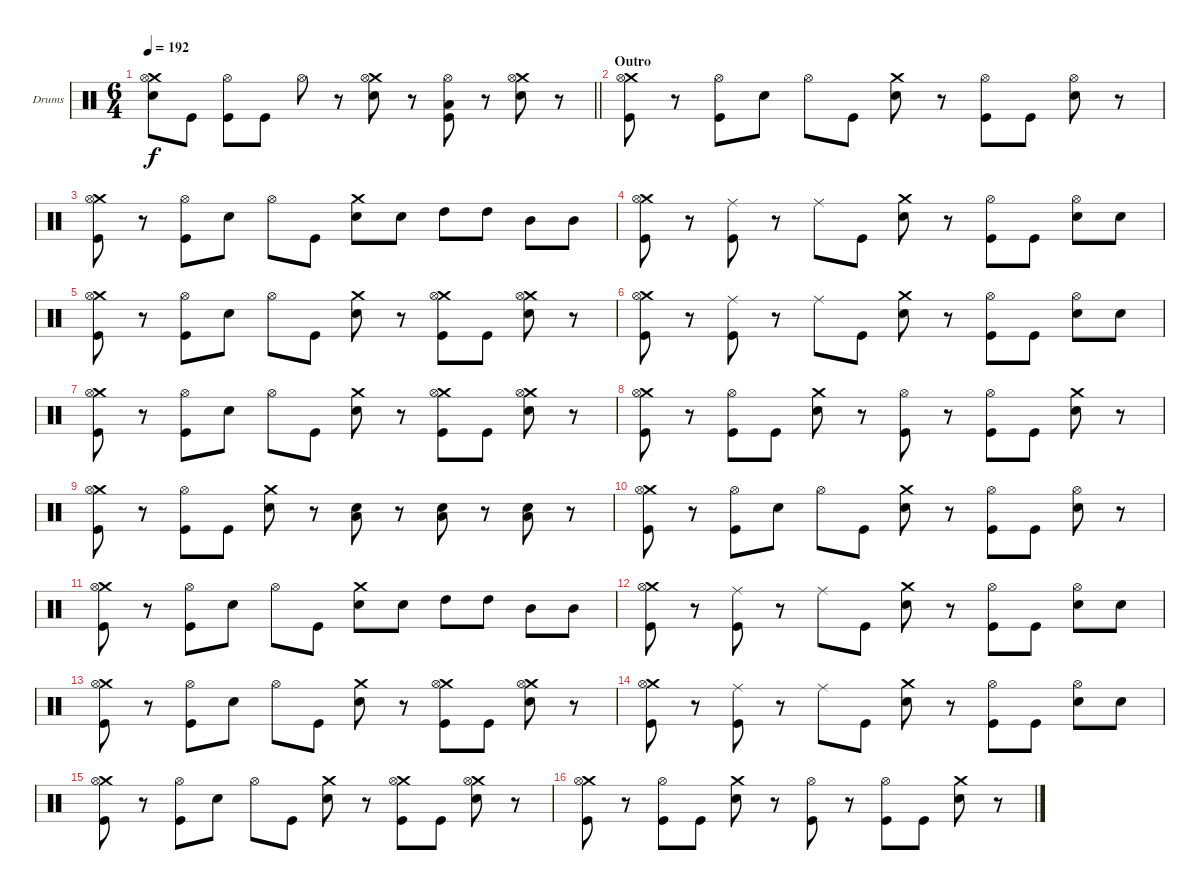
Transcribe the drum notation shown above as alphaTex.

\bracketExtendMode groupsimilarinstruments
\firstSystemTrackNameOrientation horizontal
\otherSystemsTrackNameOrientation horizontal
\track ("Drumkit" "Drums") {instrument percussion}
\staff {score}
\articulation defaults
\ts (6 4)
\tempo 192
\clef neutral
\barLineRight lightlight
\ks c
("Crash medium (hit)" "Hi-Hat (open)" "Snare (hit) 2").8{dy f} "Kick (hit)".8 ("Hi-Hat (open)" "Kick (hit)").8 "Kick (hit)".8 "Hi-Hat (open)".8 r.8 ("Crash medium (hit)" "Hi-Hat (open)" "Snare (hit) 2").8 r.8 ("Hi-Hat (open)" "Low Tom (hit)" "Kick (hit)").8 r.8 ("Crash medium (hit)" "Hi-Hat (open)" "Snare (hit) 2").8 r.8 |
\section ("" "Outro")
("Crash medium (hit)" "Hi-Hat (open)" "Kick (hit)").8 r.8 ("Hi-Hat (open)" "Kick (hit)").8 "Snare (hit) 2".8 "Hi-Hat (open)".8 "Kick (hit)".8 ("Crash medium (hit)" "Snare (hit) 2").8 r.8 ("Hi-Hat (open)" "Kick (hit)").8 "Kick (hit)".8 ("Hi-Hat (open)" "Snare (hit) 2").8 r.8 |
("Crash medium (hit)" "Hi-Hat (open)" "Kick (hit)").8 r.8 ("Hi-Hat (open)" "Kick (hit)").8 "Snare (hit) 2".8 "Hi-Hat (open)".8 "Kick (hit)".8 ("Crash medium (hit)" "Snare (hit) 2").8 "Snare (hit) 2".8 "High Tom (hit)".8 "High Tom (hit)".8 "Mid Tom (hit)".8 "Mid Tom (hit)".8 |
("Crash medium (hit)" "Hi-Hat (open)" "Kick (hit)").8 r.8 ("Ride (middle)" "Kick (hit)").8 r.8 "Ride (middle)".8 "Kick (hit)".8 ("Crash medium (hit)" "Snare (hit) 2").8 r.8 ("Hi-Hat (open)" "Kick (hit)").8 "Kick (hit)".8 ("Hi-Hat (open)" "Snare (hit) 2").8 "Snare (hit) 2".8 |
("Crash medium (hit)" "Hi-Hat (open)" "Kick (hit)").8 r.8 ("Hi-Hat (open)" "Kick (hit)").8 "Snare (hit) 2".8 "Hi-Hat (open)".8 "Kick (hit)".8 ("Crash medium (hit)" "Snare (hit) 2").8 r.8 ("Crash medium (hit)" "Hi-Hat (open)" "Kick (hit)").8 "Kick (hit)".8 ("Crash medium (hit)" "Hi-Hat (open)" "Snare (hit) 2").8 r.8 |
("Crash medium (hit)" "Hi-Hat (open)" "Kick (hit)").8 r.8 ("Ride (middle)" "Kick (hit)").8 r.8 "Ride (middle)".8 "Kick (hit)".8 ("Crash medium (hit)" "Snare (hit) 2").8 r.8 ("Hi-Hat (open)" "Kick (hit)").8 "Kick (hit)".8 ("Hi-Hat (open)" "Snare (hit) 2").8 "Snare (hit) 2".8 |
("Crash medium (hit)" "Hi-Hat (open)" "Kick (hit)").8 r.8 ("Hi-Hat (open)" "Kick (hit)").8 "Snare (hit) 2".8 "Hi-Hat (open)".8 "Kick (hit)".8 ("Crash medium (hit)" "Snare (hit) 2").8 r.8 ("Crash medium (hit)" "Hi-Hat (open)" "Kick (hit)").8 "Kick (hit)".8 ("Crash medium (hit)" "Hi-Hat (open)" "Snare (hit) 2").8 r.8 |
("Crash medium (hit)" "Hi-Hat (open)" "Kick (hit)").8 r.8 ("Hi-Hat (open)" "Kick (hit)").8 "Kick (hit)".8 ("Crash medium (hit)" "Snare (hit) 2").8 r.8 ("Hi-Hat (open)" "Kick (hit)").8 r.8 ("Hi-Hat (open)" "Kick (hit)").8 "Kick (hit)".8 ("Crash medium (hit)" "Snare (hit) 2").8 r.8 |
("Crash medium (hit)" "Hi-Hat (open)" "Kick (hit)").8 r.8 ("Hi-Hat (open)" "Kick (hit)").8 "Kick (hit)".8 ("Crash medium (hit)" "Snare (hit) 2").8 r.8 ("Low Tom (hit)" "Snare (hit) 2").8 r.8 ("Low Tom (hit)" "Snare (hit) 2").8 r.8 ("Low Tom (hit)" "Snare (hit) 2").8 r.8 |
("Crash medium (hit)" "Hi-Hat (open)" "Kick (hit)").8 r.8 ("Hi-Hat (open)" "Kick (hit)").8 "Snare (hit) 2".8 "Hi-Hat (open)".8 "Kick (hit)".8 ("Crash medium (hit)" "Snare (hit) 2").8 r.8 ("Hi-Hat (open)" "Kick (hit)").8 "Kick (hit)".8 ("Hi-Hat (open)" "Snare (hit) 2").8 r.8 |
("Crash medium (hit)" "Hi-Hat (open)" "Kick (hit)").8 r.8 ("Hi-Hat (open)" "Kick (hit)").8 "Snare (hit) 2".8 "Hi-Hat (open)".8 "Kick (hit)".8 ("Crash medium (hit)" "Snare (hit) 2").8 "Snare (hit) 2".8 "High Tom (hit)".8 "High Tom (hit)".8 "Mid Tom (hit)".8 "Mid Tom (hit)".8 |
("Crash medium (hit)" "Hi-Hat (open)" "Kick (hit)").8 r.8 ("Ride (middle)" "Kick (hit)").8 r.8 "Ride (middle)".8 "Kick (hit)".8 ("Crash medium (hit)" "Snare (hit) 2").8 r.8 ("Hi-Hat (open)" "Kick (hit)").8 "Kick (hit)".8 ("Hi-Hat (open)" "Snare (hit) 2").8 "Snare (hit) 2".8 |
("Crash medium (hit)" "Hi-Hat (open)" "Kick (hit)").8 r.8 ("Hi-Hat (open)" "Kick (hit)").8 "Snare (hit) 2".8 "Hi-Hat (open)".8 "Kick (hit)".8 ("Crash medium (hit)" "Snare (hit) 2").8 r.8 ("Crash medium (hit)" "Hi-Hat (open)" "Kick (hit)").8 "Kick (hit)".8 ("Crash medium (hit)" "Hi-Hat (open)" "Snare (hit) 2").8 r.8 |
("Crash medium (hit)" "Hi-Hat (open)" "Kick (hit)").8 r.8 ("Ride (middle)" "Kick (hit)").8 r.8 "Ride (middle)".8 "Kick (hit)".8 ("Crash medium (hit)" "Snare (hit) 2").8 r.8 ("Hi-Hat (open)" "Kick (hit)").8 "Kick (hit)".8 ("Hi-Hat (open)" "Snare (hit) 2").8 "Snare (hit) 2".8 |
("Crash medium (hit)" "Hi-Hat (open)" "Kick (hit)").8 r.8 ("Hi-Hat (open)" "Kick (hit)").8 "Snare (hit) 2".8 "Hi-Hat (open)".8 "Kick (hit)".8 ("Crash medium (hit)" "Snare (hit) 2").8 r.8 ("Crash medium (hit)" "Hi-Hat (open)" "Kick (hit)").8 "Kick (hit)".8 ("Crash medium (hit)" "Hi-Hat (open)" "Snare (hit) 2").8 r.8 |
("Crash medium (hit)" "Hi-Hat (open)" "Kick (hit)").8 r.8 ("Hi-Hat (open)" "Kick (hit)").8 "Kick (hit)".8 ("Crash medium (hit)" "Snare (hit) 2").8 r.8 ("Hi-Hat (open)" "Kick (hit)").8 r.8 ("Hi-Hat (open)" "Kick (hit)").8 "Kick (hit)".8 ("Crash medium (hit)" "Snare (hit) 2").8 r.8
